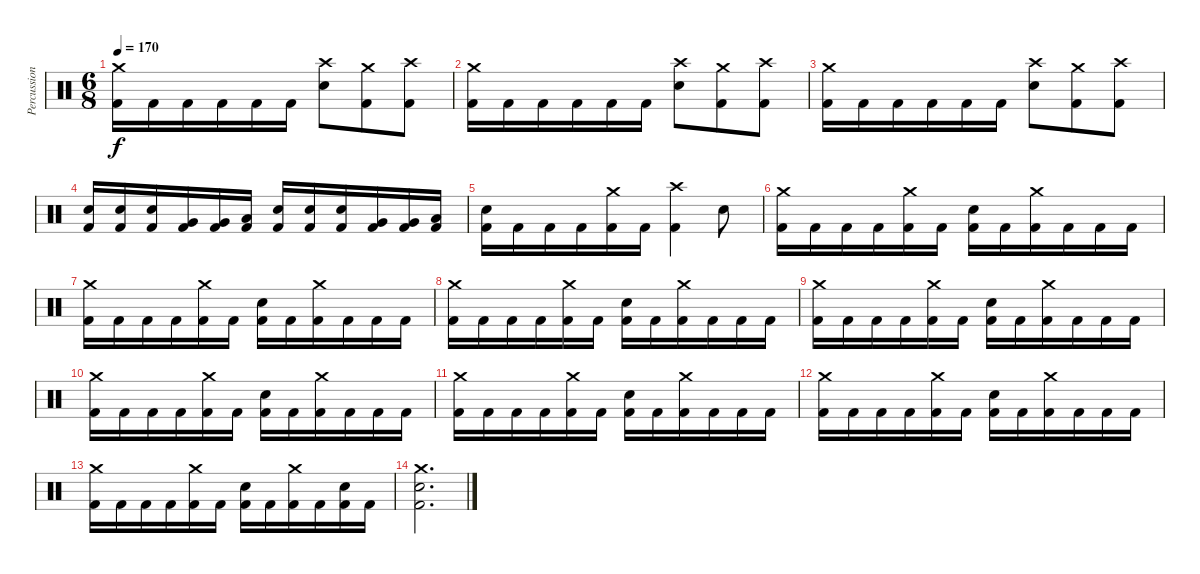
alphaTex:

\track ("Percussions" "Percussion") {instrument percussion}
\staff {score}
\articulation defaults
\ts (6 8)
\tempo 170
\clef neutral
\ks c
("Crash medium (hit)" "Kick (hit) 2").16{dy f} "Kick (hit) 2".16 "Kick (hit) 2".16 "Kick (hit) 2".16 "Kick (hit) 2".16 "Kick (hit) 2".16 ("Crash high (hit)" "Electric Snare (hit)").8 ("Crash medium (hit)" "Kick (hit) 2").8 ("Crash high (hit)" "Kick (hit) 2").8 |
("Crash medium (hit)" "Kick (hit) 2").16 "Kick (hit) 2".16 "Kick (hit) 2".16 "Kick (hit) 2".16 "Kick (hit) 2".16 "Kick (hit) 2".16 ("Crash high (hit)" "Electric Snare (hit)").8 ("Crash medium (hit)" "Kick (hit) 2").8 ("Crash high (hit)" "Kick (hit) 2").8 |
("Crash medium (hit)" "Kick (hit) 2").16 "Kick (hit) 2".16 "Kick (hit) 2".16 "Kick (hit) 2".16 "Kick (hit) 2".16 "Kick (hit) 2".16 ("Crash high (hit)" "Electric Snare (hit)").8 ("Crash medium (hit)" "Kick (hit) 2").8 ("Crash high (hit)" "Kick (hit) 2").8 |
("Electric Snare (hit)" "Kick (hit) 2").16 ("Electric Snare (hit)" "Kick (hit) 2").16 ("Electric Snare (hit)" "Kick (hit) 2").16 ("Very Low Tom (hit)" "Kick (hit) 2").16 ("Very Low Tom (hit)" "Kick (hit) 2").16 ("Low Floor Tom (hit)" "Kick (hit) 2").16 ("Electric Snare (hit)" "Kick (hit) 2").16 ("Electric Snare (hit)" "Kick (hit) 2").16 ("Electric Snare (hit)" "Kick (hit) 2").16 ("Very Low Tom (hit)" "Kick (hit) 2").16 ("Very Low Tom (hit)" "Kick (hit) 2").16 ("Low Floor Tom (hit)" "Kick (hit) 2").16 |
("Electric Snare (hit)" "Kick (hit) 2").16 "Kick (hit) 2".16 "Kick (hit) 2".16 "Kick (hit) 2".16 ("Crash medium (hit)" "Kick (hit) 2").16 "Kick (hit) 2".16 ("Crash high (hit)" "Kick (hit) 2").4 "Electric Snare (hit)".8 |
("Crash medium (hit)" "Kick (hit) 2").16 "Kick (hit) 2".16 "Kick (hit) 2".16 "Kick (hit) 2".16 ("Crash medium (hit)" "Kick (hit) 2").16 "Kick (hit) 2".16 ("Electric Snare (hit)" "Kick (hit) 2").16 "Kick (hit) 2".16 ("Crash medium (hit)" "Kick (hit) 2").16 "Kick (hit) 2".16 "Kick (hit) 2".16 "Kick (hit) 2".16 |
("Crash medium (hit)" "Kick (hit) 2").16 "Kick (hit) 2".16 "Kick (hit) 2".16 "Kick (hit) 2".16 ("Crash medium (hit)" "Kick (hit) 2").16 "Kick (hit) 2".16 ("Electric Snare (hit)" "Kick (hit) 2").16 "Kick (hit) 2".16 ("Crash medium (hit)" "Kick (hit) 2").16 "Kick (hit) 2".16 "Kick (hit) 2".16 "Kick (hit) 2".16 |
("Crash medium (hit)" "Kick (hit) 2").16 "Kick (hit) 2".16 "Kick (hit) 2".16 "Kick (hit) 2".16 ("Crash medium (hit)" "Kick (hit) 2").16 "Kick (hit) 2".16 ("Electric Snare (hit)" "Kick (hit) 2").16 "Kick (hit) 2".16 ("Crash medium (hit)" "Kick (hit) 2").16 "Kick (hit) 2".16 "Kick (hit) 2".16 "Kick (hit) 2".16 |
("Crash medium (hit)" "Kick (hit) 2").16 "Kick (hit) 2".16 "Kick (hit) 2".16 "Kick (hit) 2".16 ("Crash medium (hit)" "Kick (hit) 2").16 "Kick (hit) 2".16 ("Electric Snare (hit)" "Kick (hit) 2").16 "Kick (hit) 2".16 ("Crash medium (hit)" "Kick (hit) 2").16 "Kick (hit) 2".16 "Kick (hit) 2".16 "Kick (hit) 2".16 |
("Crash medium (hit)" "Kick (hit) 2").16 "Kick (hit) 2".16 "Kick (hit) 2".16 "Kick (hit) 2".16 ("Crash medium (hit)" "Kick (hit) 2").16 "Kick (hit) 2".16 ("Electric Snare (hit)" "Kick (hit) 2").16 "Kick (hit) 2".16 ("Crash medium (hit)" "Kick (hit) 2").16 "Kick (hit) 2".16 "Kick (hit) 2".16 "Kick (hit) 2".16 |
("Crash medium (hit)" "Kick (hit) 2").16 "Kick (hit) 2".16 "Kick (hit) 2".16 "Kick (hit) 2".16 ("Crash medium (hit)" "Kick (hit) 2").16 "Kick (hit) 2".16 ("Electric Snare (hit)" "Kick (hit) 2").16 "Kick (hit) 2".16 ("Crash medium (hit)" "Kick (hit) 2").16 "Kick (hit) 2".16 "Kick (hit) 2".16 "Kick (hit) 2".16 |
("Crash medium (hit)" "Kick (hit) 2").16 "Kick (hit) 2".16 "Kick (hit) 2".16 "Kick (hit) 2".16 ("Crash medium (hit)" "Kick (hit) 2").16 "Kick (hit) 2".16 ("Electric Snare (hit)" "Kick (hit) 2").16 "Kick (hit) 2".16 ("Crash medium (hit)" "Kick (hit) 2").16 "Kick (hit) 2".16 "Kick (hit) 2".16 "Kick (hit) 2".16 |
("Crash medium (hit)" "Kick (hit) 2").16 "Kick (hit) 2".16 "Kick (hit) 2".16 "Kick (hit) 2".16 ("Crash medium (hit)" "Kick (hit) 2").16 "Kick (hit) 2".16 ("Electric Snare (hit)" "Kick (hit) 2").16 "Kick (hit) 2".16 ("Crash medium (hit)" "Kick (hit) 2").16 "Kick (hit) 2".16 ("Electric Snare (hit)" "Kick (hit) 2").16 "Kick (hit) 2".16 |
("Electric Snare (hit)" "Crash medium (hit)" "Kick (hit) 2").2{d}
